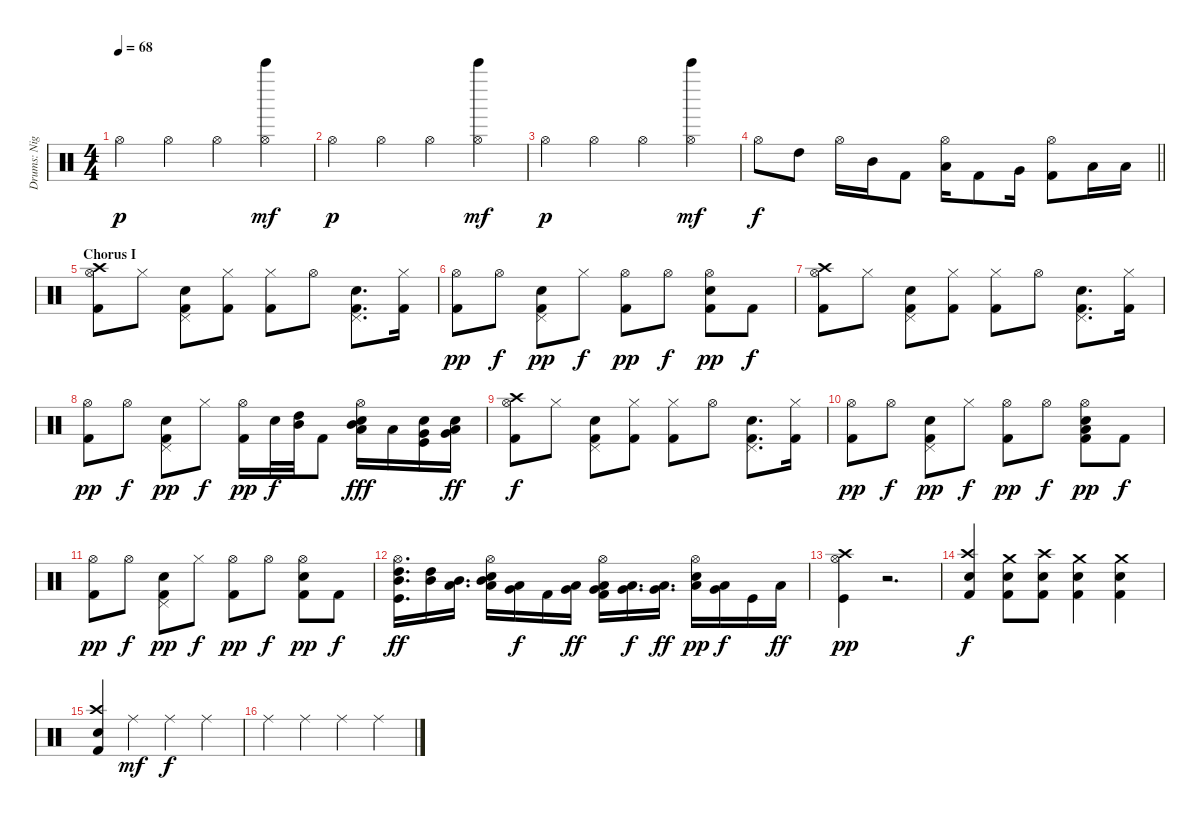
\track ("Drums: Nigel Olsson" "Drums: Nig") {instrument percussion}
\staff {score}
\articulation defaults
\ts (4 4)
\tempo 68
\clef neutral
\ks c "Hi-Hat (open)".4{dy p} "Hi-Hat (open)".4 "Hi-Hat (open)".4
("Hi-Hat (open)" "Bell Tree (hit)").4{dy mf} |
"Hi-Hat (open)".4{dy p} "Hi-Hat (open)".4 "Hi-Hat (open)".4 ("Hi-Hat (open)" "Bell Tree (hit)").4{dy mf} |
"Hi-Hat (open)".4{dy p} "Hi-Hat (open)".4 "Hi-Hat (open)".4 ("Hi-Hat (open)" "Bell Tree (hit)").4{dy mf} |
\barLineRight lightlight "Hi-Hat (open)".8{dy f} "High Tom (hit)".8 "Hi-Hat (open)".16 "Mid Tom (hit)".16 "Kick (hit) 2".8
("Hi-Hat (open)" "Low Tom (hit)").16 "Kick (hit) 2".8 "Very Low Tom (hit)".16 ("Hi-Hat (open)" "Kick (hit) 2").8 "Low Floor Tom (hit)".16 "Low Floor Tom (hit)".16 |
\section ("" "Chorus I")
("Crash high (hit)" "Hi-Hat (open)" "Kick (hit) 2").8 "Hi-Hat (closed)".8 ("Pedal Hi-Hat (hit)" "Snare (hit) 2" "Kick (hit) 2").8 ("Hi-Hat (closed)" "Kick (hit) 2").8 ("Hi-Hat (closed)" "Kick (hit) 2").8 "Hi-Hat (open)".8 ("Pedal Hi-Hat (hit)" "Snare (hit) 2" "Kick (hit) 2").8{d} ("Hi-Hat (closed)" "Kick (hit) 2").16 |
("Hi-Hat (open)" "Kick (hit) 2").8{dy pp} "Hi-Hat (open)".8{dy f} ("Pedal Hi-Hat (hit)" "Snare (hit) 2" "Kick (hit) 2").8{dy pp} "Hi-Hat (closed)".8{dy f} ("Hi-Hat (open)" "Kick (hit) 2").8{dy pp} "Hi-Hat (open)".8{dy f} ("Hi-Hat (open)" "Snare (hit) 2" "Kick (hit) 2").8{dy pp} "Kick (hit) 2".8{dy f} |
("Crash high (hit)" "Hi-Hat (open)" "Kick (hit) 2").8 "Hi-Hat (closed)".8 ("Pedal Hi-Hat (hit)" "Snare (hit) 2" "Kick (hit) 2").8 ("Hi-Hat (closed)" "Kick (hit) 2").8 ("Hi-Hat (closed)" "Kick (hit) 2").8 "Hi-Hat (open)".8 ("Pedal Hi-Hat (hit)" "Snare (hit) 2" "Kick (hit) 2").8{d} ("Hi-Hat (closed)" "Kick (hit) 2").16 |
("Hi-Hat (open)" "Kick (hit) 2").8{dy pp} "Hi-Hat (open)".8{dy f} ("Pedal Hi-Hat (hit)" "Snare (hit) 2" "Kick (hit) 2").8{dy pp} "Hi-Hat (closed)".8{dy f} ("Hi-Hat (open)" "Kick (hit) 2").16{dy pp} "Snare (hit) 2".32{dy f} ("High Tom (hit)" "Mid Tom (hit)").32 "Kick (hit) 2".8 ("Hi-Hat (open)" "Snare (hit) 2" "Mid Tom (hit)" "Low Tom (hit)").16{dy fff} "Low Tom (hit)".16 ("Kick (hit)" "Snare (hit) 2" "Very Low Tom (hit)").16 ("Very Low Tom (hit)" "Snare (hit) 2" "Low Floor Tom (hit)").16{dy ff} |
("Crash high (hit)" "Hi-Hat (open)" "Kick (hit) 2").8{dy f} "Hi-Hat (closed)".8 ("Pedal Hi-Hat (hit)" "Snare (hit) 2" "Kick (hit) 2").8 ("Hi-Hat (closed)" "Kick (hit) 2").8 ("Hi-Hat (closed)" "Kick (hit) 2").8 "Hi-Hat (open)".8 ("Pedal Hi-Hat (hit)" "Snare (hit) 2" "Kick (hit) 2").8{d} ("Hi-Hat (closed)" "Kick (hit) 2").16 |
("Hi-Hat (open)" "Kick (hit) 2").8{dy pp} "Hi-Hat (open)".8{dy f} ("Pedal Hi-Hat (hit)" "Snare (hit) 2" "Kick (hit) 2").8{dy pp} "Hi-Hat (closed)".8{dy f} ("Hi-Hat (open)" "Kick (hit) 2").8{dy pp} "Hi-Hat (open)".8{dy f} ("Hi-Hat (open)" "Snare (hit) 2" "Low Tom (hit)" "Kick (hit) 2").8{dy pp} "Kick (hit) 2".8{dy f} |
("Hi-Hat (open)" "Kick (hit) 2").8{dy pp} "Hi-Hat (open)".8{dy f} ("Pedal Hi-Hat (hit)" "Snare (hit) 2" "Kick (hit) 2").8{dy pp} "Hi-Hat (closed)".8{dy f} ("Hi-Hat (open)" "Kick (hit) 2").8{dy pp} "Hi-Hat (open)".8{dy f} ("Hi-Hat (open)" "Snare (hit) 2" "Kick (hit) 2").8{dy pp} "Kick (hit) 2".8{dy f} |
("High Tom (hit)" "Kick (hit)" "Hi-Hat (open)" "Mid Tom (hit)").16{d dy ff} ("High Tom (hit)" "Mid Tom (hit)").16 ("Low Tom (hit)" "Mid Tom (hit)").16{d} ("Snare (hit) 2" "Hi-Hat (open)" "Low Tom (hit)" "Mid Tom (hit)").16 ("Very Low Tom (hit)" "Low Tom (hit)").16{dy f} "Kick (hit) 2".16 ("Very Low Tom (hit)" "Low Tom (hit)").16{dy ff} ("Hi-Hat (open)" "Very Low Tom (hit)" "Low Tom (hit)" "Kick (hit) 2").16 ("Very Low Tom (hit)" "Low Floor Tom (hit)").16{d dy f} ("Low Floor Tom (hit)" "Very Low Tom (hit)").16{d dy ff} ("Snare (hit) 2" "Hi-Hat (open)" "Low Floor Tom (hit)").16{dy pp} ("Low Floor Tom (hit)" "Very Low Tom (hit)").16{dy f} "Kick (hit)".16 "Low Floor Tom (hit)".16{dy ff} |
("Kick (hit)" "Hi-Hat (open)" "Crash high (hit)").4{dy pp} r.2{d} |
("Crash high (hit)" "Snare (hit) 2" "Kick (hit) 2").4{dy f} ("Crash medium (hit)" "Snare (hit) 2" "Kick (hit) 2").8 ("Crash high (hit)" "Snare (hit) 2" "Kick (hit) 2").8 ("Crash medium (hit)" "Snare (hit) 2" "Kick (hit) 2").4 ("Crash medium (hit)" "Snare (hit) 2" "Kick (hit) 2").4 |
("Crash high (hit)" "Snare (hit) 2" "Kick (hit) 2").4 "Ride (middle)".4{dy mf} "Ride (middle)".4{dy f} "Ride (middle)".4 |
"Ride (middle)".4 "Ride (middle)".4 "Ride (middle)".4 "Ride (middle)".4
